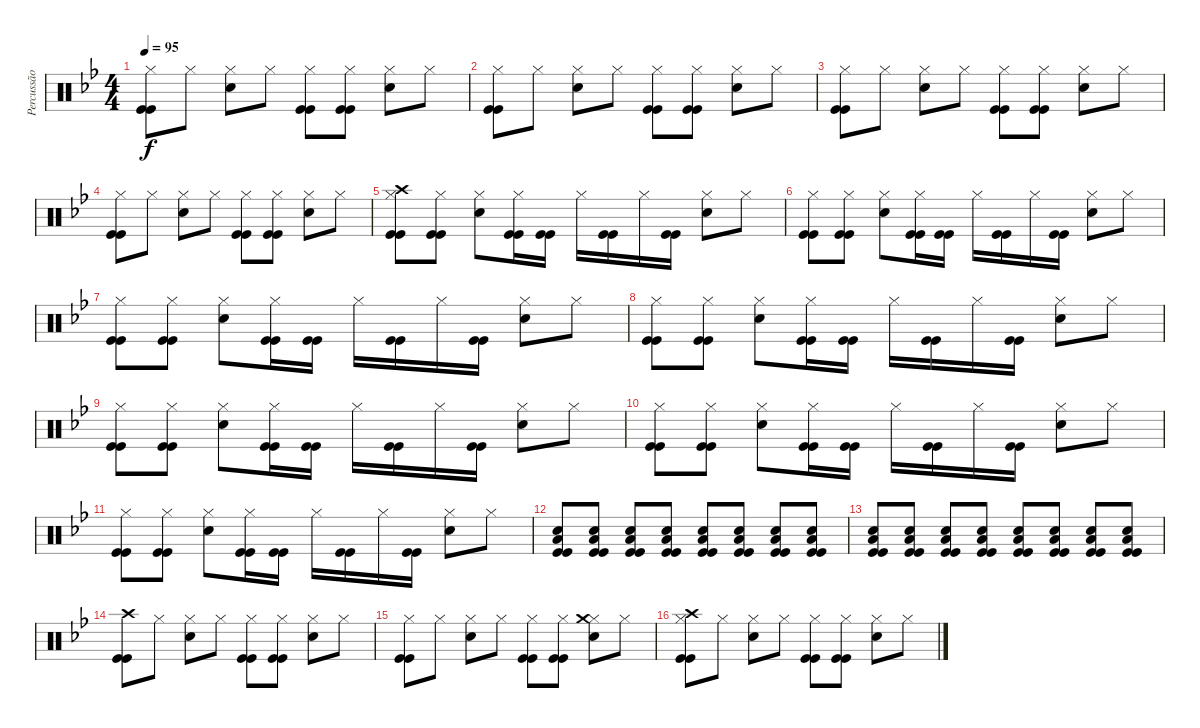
\track ("Percussão" "Percussão") {instrument percussion}
\staff {score}
\articulation defaults
\ts (4 4)
\tempo 95
\clef neutral
\ks gminor
("Kick (hit)" "Kick (hit)" "Hi-Hat (closed)").8{dy f} "Hi-Hat (closed)".8 ("Electric Snare (hit)" "Hi-Hat (closed)").8 "Hi-Hat (closed)".8 ("Kick (hit)" "Kick (hit)" "Hi-Hat (closed)").8 ("Kick (hit)" "Kick (hit)" "Hi-Hat (closed)").8 ("Electric Snare (hit)" "Hi-Hat (closed)").8 "Hi-Hat (closed)".8 |
("Kick (hit)" "Kick (hit)" "Hi-Hat (closed)").8 "Hi-Hat (closed)".8 ("Electric Snare (hit)" "Hi-Hat (closed)").8 "Hi-Hat (closed)".8 ("Kick (hit)" "Kick (hit)" "Hi-Hat (closed)").8 ("Kick (hit)" "Kick (hit)" "Hi-Hat (closed)").8 ("Electric Snare (hit)" "Hi-Hat (closed)").8 "Hi-Hat (closed)".8 |
("Kick (hit)" "Kick (hit)" "Hi-Hat (closed)").8 "Hi-Hat (closed)".8 ("Electric Snare (hit)" "Hi-Hat (closed)").8 "Hi-Hat (closed)".8 ("Kick (hit)" "Kick (hit)" "Hi-Hat (closed)").8 ("Kick (hit)" "Kick (hit)" "Hi-Hat (closed)").8 ("Electric Snare (hit)" "Hi-Hat (closed)").8 "Hi-Hat (closed)".8 |
("Kick (hit)" "Kick (hit)" "Hi-Hat (closed)").8 "Hi-Hat (closed)".8 ("Electric Snare (hit)" "Hi-Hat (closed)").8 "Hi-Hat (closed)".8 ("Kick (hit)" "Kick (hit)" "Hi-Hat (closed)").8 ("Kick (hit)" "Kick (hit)" "Hi-Hat (closed)").8 ("Electric Snare (hit)" "Hi-Hat (closed)").8 "Hi-Hat (closed)".8 |
("Kick (hit)" "Kick (hit)" "Hi-Hat (closed)" "Crash high (hit)").8 ("Kick (hit)" "Kick (hit)" "Hi-Hat (closed)").8 ("Electric Snare (hit)" "Hi-Hat (closed)").8 ("Kick (hit)" "Kick (hit)" "Hi-Hat (closed)").16 ("Kick (hit)" "Kick (hit)").16 "Hi-Hat (closed)".16 ("Kick (hit)" "Kick (hit)").16 "Hi-Hat (closed)".16 ("Kick (hit)" "Kick (hit)").16 ("Electric Snare (hit)" "Hi-Hat (closed)").8 "Hi-Hat (closed)".8 |
("Kick (hit)" "Kick (hit)" "Hi-Hat (closed)").8 ("Kick (hit)" "Kick (hit)" "Hi-Hat (closed)").8 ("Electric Snare (hit)" "Hi-Hat (closed)").8 ("Kick (hit)" "Kick (hit)" "Hi-Hat (closed)").16 ("Kick (hit)" "Kick (hit)").16 "Hi-Hat (closed)".16 ("Kick (hit)" "Kick (hit)").16 "Hi-Hat (closed)".16 ("Kick (hit)" "Kick (hit)").16 ("Electric Snare (hit)" "Hi-Hat (closed)").8 "Hi-Hat (closed)".8 |
("Kick (hit)" "Kick (hit)" "Hi-Hat (closed)").8 ("Kick (hit)" "Kick (hit)" "Hi-Hat (closed)").8 ("Electric Snare (hit)" "Hi-Hat (closed)").8 ("Kick (hit)" "Kick (hit)" "Hi-Hat (closed)").16 ("Kick (hit)" "Kick (hit)").16 "Hi-Hat (closed)".16 ("Kick (hit)" "Kick (hit)").16 "Hi-Hat (closed)".16 ("Kick (hit)" "Kick (hit)").16 ("Electric Snare (hit)" "Hi-Hat (closed)").8 "Hi-Hat (closed)".8 |
("Kick (hit)" "Kick (hit)" "Hi-Hat (closed)").8 ("Kick (hit)" "Kick (hit)" "Hi-Hat (closed)").8 ("Electric Snare (hit)" "Hi-Hat (closed)").8 ("Kick (hit)" "Kick (hit)" "Hi-Hat (closed)").16 ("Kick (hit)" "Kick (hit)").16 "Hi-Hat (closed)".16 ("Kick (hit)" "Kick (hit)").16 "Hi-Hat (closed)".16 ("Kick (hit)" "Kick (hit)").16 ("Electric Snare (hit)" "Hi-Hat (closed)").8 "Hi-Hat (closed)".8 |
("Kick (hit)" "Kick (hit)" "Hi-Hat (closed)").8 ("Kick (hit)" "Kick (hit)" "Hi-Hat (closed)").8 ("Electric Snare (hit)" "Hi-Hat (closed)").8 ("Kick (hit)" "Kick (hit)" "Hi-Hat (closed)").16 ("Kick (hit)" "Kick (hit)").16 "Hi-Hat (closed)".16 ("Kick (hit)" "Kick (hit)").16 "Hi-Hat (closed)".16 ("Kick (hit)" "Kick (hit)").16 ("Electric Snare (hit)" "Hi-Hat (closed)").8 "Hi-Hat (closed)".8 |
("Kick (hit)" "Kick (hit)" "Hi-Hat (closed)").8 ("Kick (hit)" "Kick (hit)" "Hi-Hat (closed)").8 ("Electric Snare (hit)" "Hi-Hat (closed)").8 ("Kick (hit)" "Kick (hit)" "Hi-Hat (closed)").16 ("Kick (hit)" "Kick (hit)").16 "Hi-Hat (closed)".16 ("Kick (hit)" "Kick (hit)").16 "Hi-Hat (closed)".16 ("Kick (hit)" "Kick (hit)").16 ("Electric Snare (hit)" "Hi-Hat (closed)").8 "Hi-Hat (closed)".8 |
("Kick (hit)" "Kick (hit)" "Hi-Hat (closed)").8 ("Kick (hit)" "Kick (hit)" "Hi-Hat (closed)").8 ("Electric Snare (hit)" "Hi-Hat (closed)").8 ("Kick (hit)" "Kick (hit)" "Hi-Hat (closed)").16 ("Kick (hit)" "Kick (hit)").16 "Hi-Hat (closed)".16 ("Kick (hit)" "Kick (hit)").16 "Hi-Hat (closed)".16 ("Kick (hit)" "Kick (hit)").16 ("Electric Snare (hit)" "Hi-Hat (closed)").8 "Hi-Hat (closed)".8 |
("Kick (hit)" "Kick (hit)" "Electric Snare (hit)" "Low Floor Tom (hit)").8 ("Kick (hit)" "Kick (hit)" "Electric Snare (hit)" "Low Floor Tom (hit)").8 ("Kick (hit)" "Kick (hit)" "Electric Snare (hit)" "Low Floor Tom (hit)").8 ("Kick (hit)" "Kick (hit)" "Electric Snare (hit)" "Low Floor Tom (hit)").8 ("Kick (hit)" "Kick (hit)" "Electric Snare (hit)" "Low Floor Tom (hit)").8 ("Kick (hit)" "Kick (hit)" "Electric Snare (hit)" "Low Floor Tom (hit)").8 ("Kick (hit)" "Kick (hit)" "Electric Snare (hit)" "Low Floor Tom (hit)").8 ("Kick (hit)" "Kick (hit)" "Electric Snare (hit)" "Low Floor Tom (hit)").8 |
("Kick (hit)" "Kick (hit)" "Electric Snare (hit)" "Low Floor Tom (hit)").8 ("Kick (hit)" "Kick (hit)" "Electric Snare (hit)" "Low Floor Tom (hit)").8 ("Kick (hit)" "Kick (hit)" "Electric Snare (hit)" "Low Floor Tom (hit)").8 ("Kick (hit)" "Kick (hit)" "Electric Snare (hit)" "Low Floor Tom (hit)").8 ("Kick (hit)" "Kick (hit)" "Electric Snare (hit)" "Low Floor Tom (hit)").8 ("Kick (hit)" "Kick (hit)" "Electric Snare (hit)" "Low Floor Tom (hit)").8 ("Kick (hit)" "Kick (hit)" "Electric Snare (hit)" "Low Floor Tom (hit)").8 ("Kick (hit)" "Kick (hit)" "Electric Snare (hit)" "Low Floor Tom (hit)").8 |
("Kick (hit)" "Kick (hit)" "Crash high (hit)").8 "Hi-Hat (closed)".8 ("Electric Snare (hit)" "Hi-Hat (closed)").8 "Hi-Hat (closed)".8 ("Kick (hit)" "Kick (hit)" "Hi-Hat (closed)").8 ("Kick (hit)" "Kick (hit)" "Hi-Hat (closed)").8 ("Electric Snare (hit)" "Hi-Hat (closed)").8 "Hi-Hat (closed)".8 |
("Kick (hit)" "Kick (hit)" "Hi-Hat (closed)").8 "Hi-Hat (closed)".8 ("Electric Snare (hit)" "Hi-Hat (closed)").8 "Hi-Hat (closed)".8 ("Kick (hit)" "Kick (hit)" "Hi-Hat (closed)").8 ("Kick (hit)" "Kick (hit)" "Hi-Hat (closed)").8 ("Electric Snare (hit)" "Hi-Hat (closed)" "Crash medium (hit)").8 "Hi-Hat (closed)".8 |
("Kick (hit)" "Kick (hit)" "Hi-Hat (closed)" "Crash high (hit)").8 "Hi-Hat (closed)".8 ("Electric Snare (hit)" "Hi-Hat (closed)").8 "Hi-Hat (closed)".8 ("Kick (hit)" "Kick (hit)" "Hi-Hat (closed)").8 ("Kick (hit)" "Kick (hit)" "Hi-Hat (closed)").8 ("Electric Snare (hit)" "Hi-Hat (closed)").8 "Hi-Hat (closed)".8
